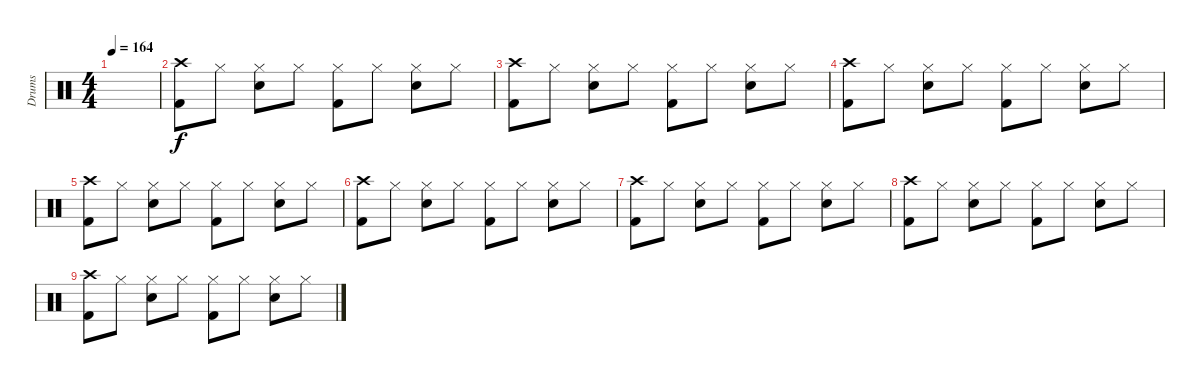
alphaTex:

\track ("Drums" "Drums") {instrument percussion}
\staff {score}
\articulation defaults
\ts (4 4)
\tempo 164
\clef neutral
\ks c
|
("Crash high (hit)" "Kick (hit) 2").8 "Hi-Hat (closed)".8 ("Hi-Hat (closed)" "Snare (hit) 2").8 "Hi-Hat (closed)".8 ("Hi-Hat (closed)" "Kick (hit) 2").8 "Hi-Hat (closed)".8 ("Hi-Hat (closed)" "Snare (hit) 2").8 "Hi-Hat (closed)".8 |
("Crash high (hit)" "Kick (hit) 2").8 "Hi-Hat (closed)".8 ("Hi-Hat (closed)" "Snare (hit) 2").8 "Hi-Hat (closed)".8 ("Hi-Hat (closed)" "Kick (hit) 2").8 "Hi-Hat (closed)".8 ("Hi-Hat (closed)" "Snare (hit) 2").8 "Hi-Hat (closed)".8 |
("Crash high (hit)" "Kick (hit) 2").8 "Hi-Hat (closed)".8 ("Hi-Hat (closed)" "Snare (hit) 2").8 "Hi-Hat (closed)".8 ("Hi-Hat (closed)" "Kick (hit) 2").8 "Hi-Hat (closed)".8 ("Hi-Hat (closed)" "Snare (hit) 2").8 "Hi-Hat (closed)".8 |
("Crash high (hit)" "Kick (hit) 2").8 "Hi-Hat (closed)".8 ("Hi-Hat (closed)" "Snare (hit) 2").8 "Hi-Hat (closed)".8 ("Hi-Hat (closed)" "Kick (hit) 2").8 "Hi-Hat (closed)".8 ("Hi-Hat (closed)" "Snare (hit) 2").8 "Hi-Hat (closed)".8 |
("Crash high (hit)" "Kick (hit) 2").8 "Hi-Hat (closed)".8 ("Hi-Hat (closed)" "Snare (hit) 2").8 "Hi-Hat (closed)".8 ("Hi-Hat (closed)" "Kick (hit) 2").8 "Hi-Hat (closed)".8 ("Hi-Hat (closed)" "Snare (hit) 2").8 "Hi-Hat (closed)".8 |
("Crash high (hit)" "Kick (hit) 2").8 "Hi-Hat (closed)".8 ("Hi-Hat (closed)" "Snare (hit) 2").8 "Hi-Hat (closed)".8 ("Hi-Hat (closed)" "Kick (hit) 2").8 "Hi-Hat (closed)".8 ("Hi-Hat (closed)" "Snare (hit) 2").8 "Hi-Hat (closed)".8 |
("Crash high (hit)" "Kick (hit) 2").8 "Hi-Hat (closed)".8 ("Hi-Hat (closed)" "Snare (hit) 2").8 "Hi-Hat (closed)".8 ("Hi-Hat (closed)" "Kick (hit) 2").8 "Hi-Hat (closed)".8 ("Hi-Hat (closed)" "Snare (hit) 2").8 "Hi-Hat (closed)".8 |
("Crash high (hit)" "Kick (hit) 2").8 "Hi-Hat (closed)".8 ("Hi-Hat (closed)" "Snare (hit) 2").8 "Hi-Hat (closed)".8 ("Hi-Hat (closed)" "Kick (hit) 2").8 "Hi-Hat (closed)".8 ("Hi-Hat (closed)" "Snare (hit) 2").8 "Hi-Hat (closed)".8
